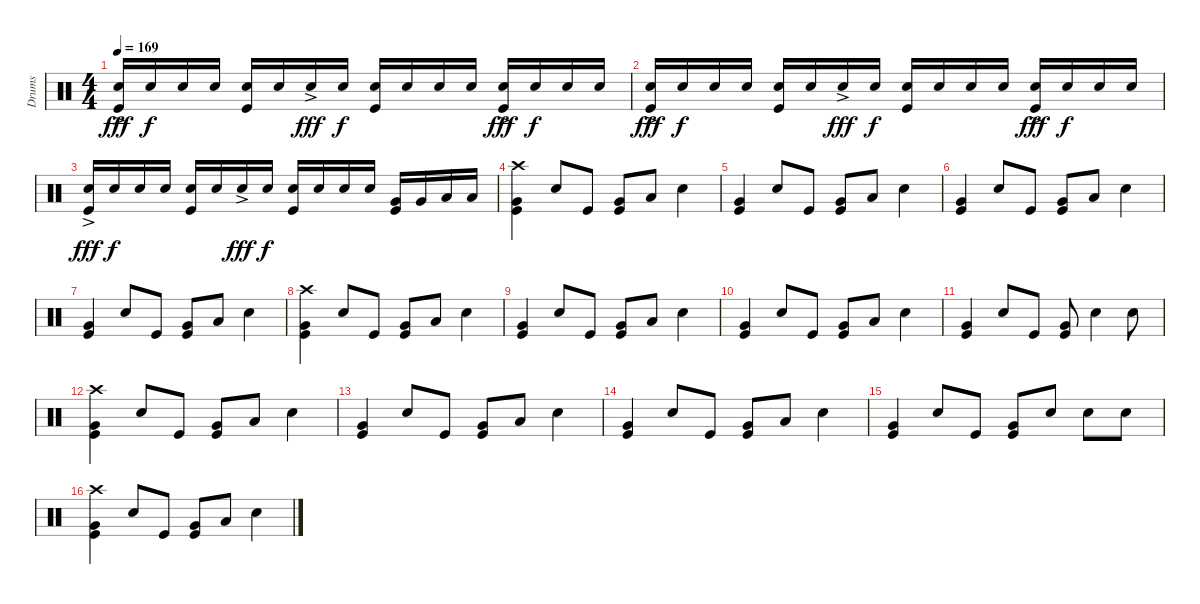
\track ("Drums" "Drums") {instrument percussion}
\staff {score}
\articulation defaults
\ts (4 4)
\tempo 169
\clef neutral
\ks c
("Snare (hit) 2"{ac} "Kick (hit)").16{dy fff} "Snare (hit) 2".16{dy f} "Snare (hit) 2".16 "Snare (hit) 2".16 ("Snare (hit) 2" "Kick (hit)").16 "Snare (hit) 2".16 "Snare (hit) 2"{ac}.16{dy fff} "Snare (hit) 2".16{dy f} ("Snare (hit) 2" "Kick (hit)").16 "Snare (hit) 2".16 "Snare (hit) 2".16 "Snare (hit) 2".16 ("Snare (hit) 2"{ac} "Kick (hit)").16{dy fff} "Snare (hit) 2".16{dy f} "Snare (hit) 2".16 "Snare (hit) 2".16 |
("Snare (hit) 2"{ac} "Kick (hit)").16{dy fff} "Snare (hit) 2".16{dy f} "Snare (hit) 2".16 "Snare (hit) 2".16 ("Snare (hit) 2" "Kick (hit)").16 "Snare (hit) 2".16 "Snare (hit) 2"{ac}.16{dy fff} "Snare (hit) 2".16{dy f} ("Snare (hit) 2" "Kick (hit)").16 "Snare (hit) 2".16 "Snare (hit) 2".16 "Snare (hit) 2".16 ("Snare (hit) 2"{ac} "Kick (hit)").16{dy fff} "Snare (hit) 2".16{dy f} "Snare (hit) 2".16 "Snare (hit) 2".16 |
("Snare (hit) 2"{ac} "Kick (hit)").16{dy fff} "Snare (hit) 2".16{dy f} "Snare (hit) 2".16 "Snare (hit) 2".16 ("Snare (hit) 2" "Kick (hit)").16 "Snare (hit) 2".16 "Snare (hit) 2"{ac}.16{dy fff} "Snare (hit) 2".16{dy f} ("Snare (hit) 2" "Kick (hit)").16 "Snare (hit) 2".16 "Snare (hit) 2".16 "Snare (hit) 2".16 ("Very Low Tom (hit)" "Kick (hit)").16 "Very Low Tom (hit)".16 "Low Floor Tom (hit)".16 "Low Floor Tom (hit)".16 |
("Crash high (hit)" "Very Low Tom (hit)" "Kick (hit)").4 "Snare (hit) 2".8 "Kick (hit)".8 ("Very Low Tom (hit)" "Kick (hit)").8 "Low Floor Tom (hit)".8 "Snare (hit) 2".4 |
("Very Low Tom (hit)" "Kick (hit)").4 "Snare (hit) 2".8 "Kick (hit)".8 ("Very Low Tom (hit)" "Kick (hit)").8 "Low Floor Tom (hit)".8 "Snare (hit) 2".4 |
("Very Low Tom (hit)" "Kick (hit)").4 "Snare (hit) 2".8 "Kick (hit)".8 ("Very Low Tom (hit)" "Kick (hit)").8 "Low Floor Tom (hit)".8 "Snare (hit) 2".4 |
("Very Low Tom (hit)" "Kick (hit)").4 "Snare (hit) 2".8 "Kick (hit)".8 ("Very Low Tom (hit)" "Kick (hit)").8 "Low Floor Tom (hit)".8 "Snare (hit) 2".4 |
("Crash high (hit)" "Very Low Tom (hit)" "Kick (hit)").4 "Snare (hit) 2".8 "Kick (hit)".8 ("Very Low Tom (hit)" "Kick (hit)").8 "Low Floor Tom (hit)".8 "Snare (hit) 2".4 |
("Very Low Tom (hit)" "Kick (hit)").4 "Snare (hit) 2".8 "Kick (hit)".8 ("Very Low Tom (hit)" "Kick (hit)").8 "Low Floor Tom (hit)".8 "Snare (hit) 2".4 |
("Very Low Tom (hit)" "Kick (hit)").4 "Snare (hit) 2".8 "Kick (hit)".8 ("Very Low Tom (hit)" "Kick (hit)").8 "Low Floor Tom (hit)".8 "Snare (hit) 2".4 |
("Very Low Tom (hit)" "Kick (hit)").4 "Snare (hit) 2".8 "Kick (hit)".8 ("Very Low Tom (hit)" "Kick (hit)").8 "Snare (hit) 2".4 "Snare (hit) 2".8 |
("Crash high (hit)" "Very Low Tom (hit)" "Kick (hit)").4 "Snare (hit) 2".8 "Kick (hit)".8 ("Very Low Tom (hit)" "Kick (hit)").8 "Low Floor Tom (hit)".8 "Snare (hit) 2".4 |
("Very Low Tom (hit)" "Kick (hit)").4 "Snare (hit) 2".8 "Kick (hit)".8 ("Very Low Tom (hit)" "Kick (hit)").8 "Low Floor Tom (hit)".8 "Snare (hit) 2".4 |
("Very Low Tom (hit)" "Kick (hit)").4 "Snare (hit) 2".8 "Kick (hit)".8 ("Very Low Tom (hit)" "Kick (hit)").8 "Low Floor Tom (hit)".8 "Snare (hit) 2".4 |
("Very Low Tom (hit)" "Kick (hit)").4 "Snare (hit) 2".8 "Kick (hit)".8 ("Very Low Tom (hit)" "Kick (hit)").8 "Snare (hit) 2".8 "Snare (hit) 2".8 "Snare (hit) 2".8 |
("Crash high (hit)" "Very Low Tom (hit)" "Kick (hit)").4 "Snare (hit) 2".8 "Kick (hit)".8 ("Very Low Tom (hit)" "Kick (hit)").8 "Low Floor Tom (hit)".8 "Snare (hit) 2".4
